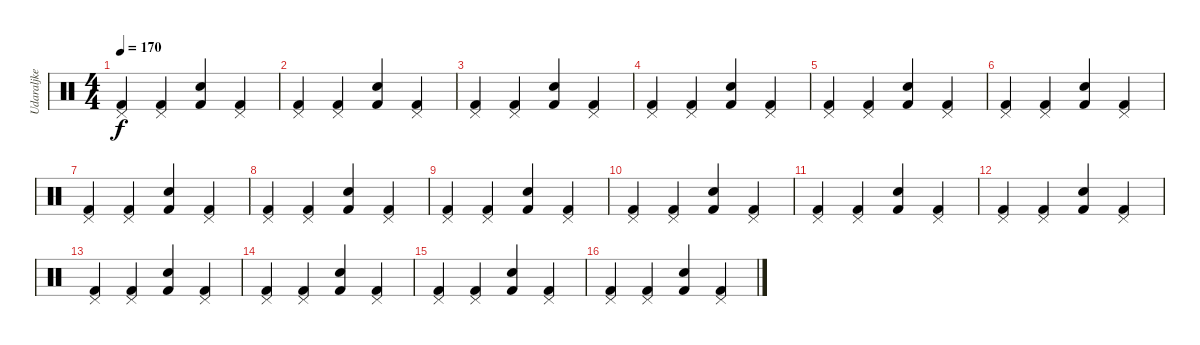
\track ("Udaraljke" "Udaraljke") {instrument percussion}
\staff {score}
\articulation defaults
\ts (4 4)
\tempo 170
\clef neutral
\ks c
("Kick (hit) 2" "Pedal Hi-Hat (hit)").4{dy f} ("Kick (hit) 2" "Pedal Hi-Hat (hit)").4 ("Kick (hit) 2" "Electric Snare (hit)").4 ("Kick (hit) 2" "Pedal Hi-Hat (hit)").4 |
("Kick (hit) 2" "Pedal Hi-Hat (hit)").4 ("Kick (hit) 2" "Pedal Hi-Hat (hit)").4 ("Kick (hit) 2" "Electric Snare (hit)").4 ("Kick (hit) 2" "Pedal Hi-Hat (hit)").4 |
("Kick (hit) 2" "Pedal Hi-Hat (hit)").4 ("Kick (hit) 2" "Pedal Hi-Hat (hit)").4 ("Kick (hit) 2" "Electric Snare (hit)").4 ("Kick (hit) 2" "Pedal Hi-Hat (hit)").4 |
("Kick (hit) 2" "Pedal Hi-Hat (hit)").4 ("Kick (hit) 2" "Pedal Hi-Hat (hit)").4 ("Kick (hit) 2" "Electric Snare (hit)").4 ("Kick (hit) 2" "Pedal Hi-Hat (hit)").4 |
("Kick (hit) 2" "Pedal Hi-Hat (hit)").4 ("Kick (hit) 2" "Pedal Hi-Hat (hit)").4 ("Kick (hit) 2" "Electric Snare (hit)").4 ("Kick (hit) 2" "Pedal Hi-Hat (hit)").4 |
("Kick (hit) 2" "Pedal Hi-Hat (hit)").4 ("Kick (hit) 2" "Pedal Hi-Hat (hit)").4 ("Kick (hit) 2" "Electric Snare (hit)").4 ("Kick (hit) 2" "Pedal Hi-Hat (hit)").4 |
("Kick (hit) 2" "Pedal Hi-Hat (hit)").4 ("Kick (hit) 2" "Pedal Hi-Hat (hit)").4 ("Kick (hit) 2" "Electric Snare (hit)").4 ("Kick (hit) 2" "Pedal Hi-Hat (hit)").4 |
("Kick (hit) 2" "Pedal Hi-Hat (hit)").4 ("Kick (hit) 2" "Pedal Hi-Hat (hit)").4 ("Kick (hit) 2" "Electric Snare (hit)").4 ("Kick (hit) 2" "Pedal Hi-Hat (hit)").4 |
("Kick (hit) 2" "Pedal Hi-Hat (hit)").4 ("Kick (hit) 2" "Pedal Hi-Hat (hit)").4 ("Kick (hit) 2" "Electric Snare (hit)").4 ("Kick (hit) 2" "Pedal Hi-Hat (hit)").4 |
("Kick (hit) 2" "Pedal Hi-Hat (hit)").4 ("Kick (hit) 2" "Pedal Hi-Hat (hit)").4 ("Kick (hit) 2" "Electric Snare (hit)").4 ("Kick (hit) 2" "Pedal Hi-Hat (hit)").4 |
("Kick (hit) 2" "Pedal Hi-Hat (hit)").4 ("Kick (hit) 2" "Pedal Hi-Hat (hit)").4 ("Kick (hit) 2" "Electric Snare (hit)").4 ("Kick (hit) 2" "Pedal Hi-Hat (hit)").4 |
("Kick (hit) 2" "Pedal Hi-Hat (hit)").4 ("Kick (hit) 2" "Pedal Hi-Hat (hit)").4 ("Kick (hit) 2" "Electric Snare (hit)").4 ("Kick (hit) 2" "Pedal Hi-Hat (hit)").4 |
("Kick (hit) 2" "Pedal Hi-Hat (hit)").4 ("Kick (hit) 2" "Pedal Hi-Hat (hit)").4 ("Kick (hit) 2" "Electric Snare (hit)").4 ("Kick (hit) 2" "Pedal Hi-Hat (hit)").4 |
("Kick (hit) 2" "Pedal Hi-Hat (hit)").4 ("Kick (hit) 2" "Pedal Hi-Hat (hit)").4 ("Kick (hit) 2" "Electric Snare (hit)").4 ("Kick (hit) 2" "Pedal Hi-Hat (hit)").4 |
("Kick (hit) 2" "Pedal Hi-Hat (hit)").4 ("Kick (hit) 2" "Pedal Hi-Hat (hit)").4 ("Kick (hit) 2" "Electric Snare (hit)").4 ("Kick (hit) 2" "Pedal Hi-Hat (hit)").4 |
("Kick (hit) 2" "Pedal Hi-Hat (hit)").4 ("Kick (hit) 2" "Pedal Hi-Hat (hit)").4 ("Kick (hit) 2" "Electric Snare (hit)").4 ("Kick (hit) 2" "Pedal Hi-Hat (hit)").4
